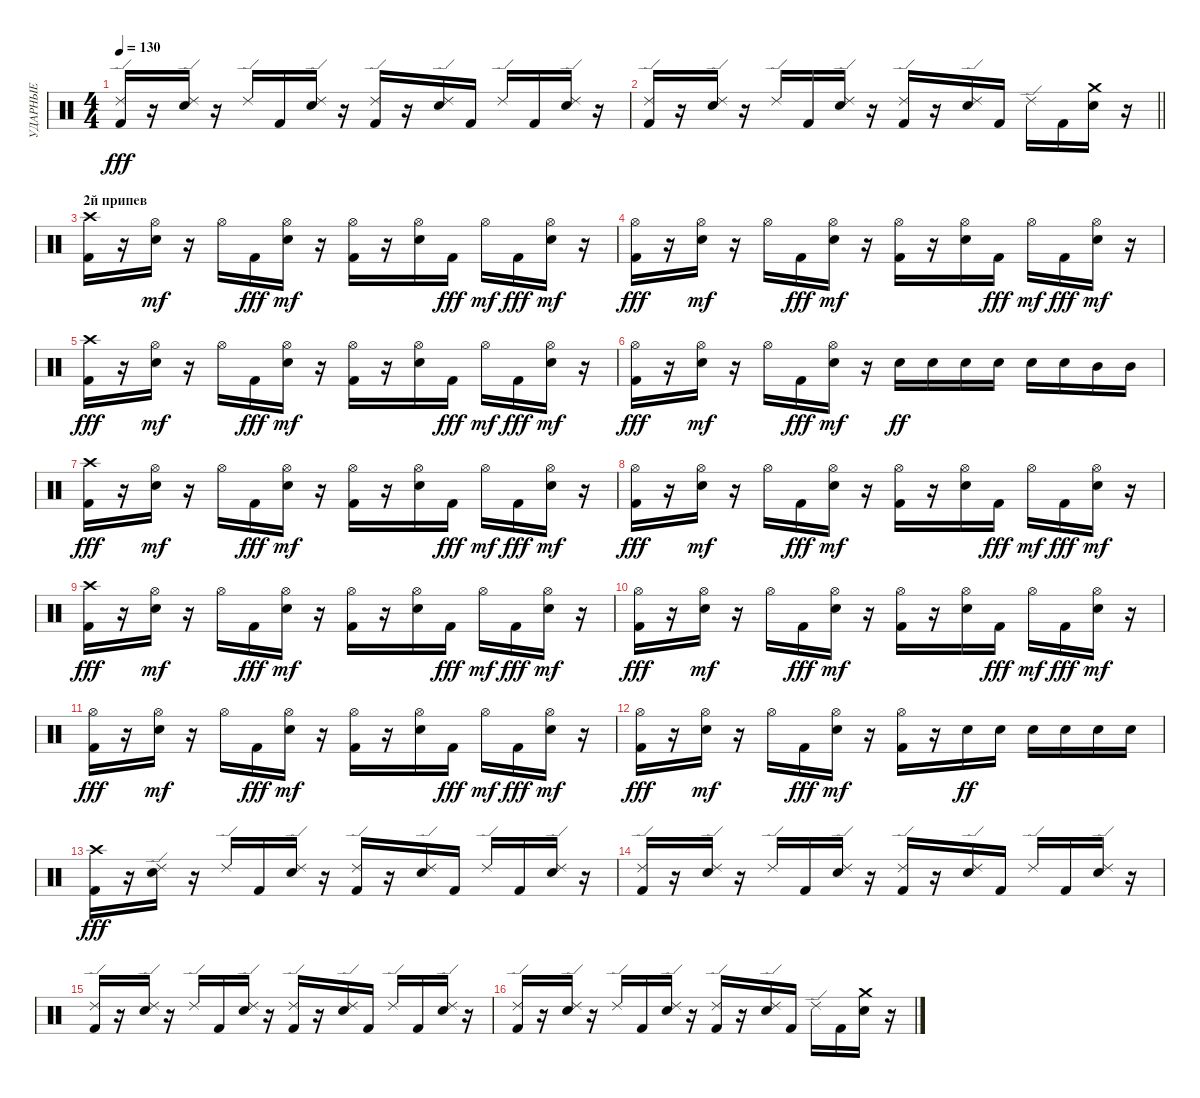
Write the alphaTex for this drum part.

\track ("УДАРНЫЕ" "УДАРНЫЕ") {instrument percussion}
\staff {score}
\articulation defaults
\ts (4 4)
\tempo 130
\clef neutral
\ks c
("Ride (edge) 2" "Kick (hit) 2").16{dy fff} r.16 ("Snare (hit) 2" "Ride (edge) 2").16 r.16 "Ride (edge) 2".16 "Kick (hit) 2".16 ("Snare (hit) 2" "Ride (edge) 2").16 r.16 ("Kick (hit) 2" "Ride (edge) 2").16 r.16 ("Snare (hit) 2" "Ride (edge) 2").16 "Kick (hit) 2".16 "Ride (edge) 2".16 "Kick (hit) 2".16 ("Snare (hit) 2" "Ride (edge) 2").16 r.16 |
\barLineRight lightlight
("Ride (edge) 2" "Kick (hit) 2").16 r.16 ("Snare (hit) 2" "Ride (edge) 2").16 r.16 "Ride (edge) 2".16 "Kick (hit) 2".16 ("Snare (hit) 2" "Ride (edge) 2").16 r.16 ("Kick (hit) 2" "Ride (edge) 2").16 r.16 ("Snare (hit) 2" "Ride (edge) 2").16 "Kick (hit) 2".16 "Ride (edge) 2".16 "Kick (hit) 2".16 ("Snare (hit) 2" "Crash medium (hit)").16 r.16 |
\section ("" "2й припев")
("Crash high (hit)" "Kick (hit) 2").16 r.16 ("Snare (hit) 2" "Hi-Hat (open)").16{dy mf} r.16 "Hi-Hat (open)".16 "Kick (hit) 2".16{dy fff} ("Snare (hit) 2" "Hi-Hat (open)").16{dy mf} r.16 ("Kick (hit) 2" "Hi-Hat (open)").16 r.16 ("Snare (hit) 2" "Hi-Hat (open)").16 "Kick (hit) 2".16{dy fff} "Hi-Hat (open)".16{dy mf} "Kick (hit) 2".16{dy fff} ("Snare (hit) 2" "Hi-Hat (open)").16{dy mf} r.16 |
("Hi-Hat (open)" "Kick (hit) 2").16{dy fff} r.16 ("Snare (hit) 2" "Hi-Hat (open)").16{dy mf} r.16 "Hi-Hat (open)".16 "Kick (hit) 2".16{dy fff} ("Snare (hit) 2" "Hi-Hat (open)").16{dy mf} r.16 ("Kick (hit) 2" "Hi-Hat (open)").16 r.16 ("Snare (hit) 2" "Hi-Hat (open)").16 "Kick (hit) 2".16{dy fff} "Hi-Hat (open)".16{dy mf} "Kick (hit) 2".16{dy fff} ("Snare (hit) 2" "Hi-Hat (open)").16{dy mf} r.16 |
("Crash high (hit)" "Kick (hit) 2").16{dy fff} r.16 ("Snare (hit) 2" "Hi-Hat (open)").16{dy mf} r.16 "Hi-Hat (open)".16 "Kick (hit) 2".16{dy fff} ("Snare (hit) 2" "Hi-Hat (open)").16{dy mf} r.16 ("Kick (hit) 2" "Hi-Hat (open)").16 r.16 ("Snare (hit) 2" "Hi-Hat (open)").16 "Kick (hit) 2".16{dy fff} "Hi-Hat (open)".16{dy mf} "Kick (hit) 2".16{dy fff} ("Snare (hit) 2" "Hi-Hat (open)").16{dy mf} r.16 |
("Hi-Hat (open)" "Kick (hit) 2").16{dy fff} r.16 ("Snare (hit) 2" "Hi-Hat (open)").16{dy mf} r.16 "Hi-Hat (open)".16 "Kick (hit) 2".16{dy fff} ("Snare (hit) 2" "Hi-Hat (open)").16{dy mf} r.16 "Snare (hit) 2".16{dy ff} "Snare (hit) 2".16 "Snare (hit) 2".16 "Snare (hit) 2".16 "Snare (hit) 2".16 "Snare (hit) 2".16 "Mid Tom (hit)".16 "Mid Tom (hit)".16 |
("Crash high (hit)" "Kick (hit) 2").16{dy fff} r.16 ("Snare (hit) 2" "Hi-Hat (open)").16{dy mf} r.16 "Hi-Hat (open)".16 "Kick (hit) 2".16{dy fff} ("Snare (hit) 2" "Hi-Hat (open)").16{dy mf} r.16 ("Kick (hit) 2" "Hi-Hat (open)").16 r.16 ("Snare (hit) 2" "Hi-Hat (open)").16 "Kick (hit) 2".16{dy fff} "Hi-Hat (open)".16{dy mf} "Kick (hit) 2".16{dy fff} ("Snare (hit) 2" "Hi-Hat (open)").16{dy mf} r.16 |
("Hi-Hat (open)" "Kick (hit) 2").16{dy fff} r.16 ("Snare (hit) 2" "Hi-Hat (open)").16{dy mf} r.16 "Hi-Hat (open)".16 "Kick (hit) 2".16{dy fff} ("Snare (hit) 2" "Hi-Hat (open)").16{dy mf} r.16 ("Kick (hit) 2" "Hi-Hat (open)").16 r.16 ("Snare (hit) 2" "Hi-Hat (open)").16 "Kick (hit) 2".16{dy fff} "Hi-Hat (open)".16{dy mf} "Kick (hit) 2".16{dy fff} ("Snare (hit) 2" "Hi-Hat (open)").16{dy mf} r.16 |
("Crash high (hit)" "Kick (hit) 2").16{dy fff} r.16 ("Snare (hit) 2" "Hi-Hat (open)").16{dy mf} r.16 "Hi-Hat (open)".16 "Kick (hit) 2".16{dy fff} ("Snare (hit) 2" "Hi-Hat (open)").16{dy mf} r.16 ("Kick (hit) 2" "Hi-Hat (open)").16 r.16 ("Snare (hit) 2" "Hi-Hat (open)").16 "Kick (hit) 2".16{dy fff} "Hi-Hat (open)".16{dy mf} "Kick (hit) 2".16{dy fff} ("Snare (hit) 2" "Hi-Hat (open)").16{dy mf} r.16 |
("Hi-Hat (open)" "Kick (hit) 2").16{dy fff} r.16 ("Snare (hit) 2" "Hi-Hat (open)").16{dy mf} r.16 "Hi-Hat (open)".16 "Kick (hit) 2".16{dy fff} ("Snare (hit) 2" "Hi-Hat (open)").16{dy mf} r.16 ("Kick (hit) 2" "Hi-Hat (open)").16 r.16 ("Snare (hit) 2" "Hi-Hat (open)").16 "Kick (hit) 2".16{dy fff} "Hi-Hat (open)".16{dy mf} "Kick (hit) 2".16{dy fff} ("Snare (hit) 2" "Hi-Hat (open)").16{dy mf} r.16 |
("Hi-Hat (open)" "Kick (hit) 2").16{dy fff} r.16 ("Snare (hit) 2" "Hi-Hat (open)").16{dy mf} r.16 "Hi-Hat (open)".16 "Kick (hit) 2".16{dy fff} ("Snare (hit) 2" "Hi-Hat (open)").16{dy mf} r.16 ("Kick (hit) 2" "Hi-Hat (open)").16 r.16 ("Snare (hit) 2" "Hi-Hat (open)").16 "Kick (hit) 2".16{dy fff} "Hi-Hat (open)".16{dy mf} "Kick (hit) 2".16{dy fff} ("Snare (hit) 2" "Hi-Hat (open)").16{dy mf} r.16 |
("Hi-Hat (open)" "Kick (hit) 2").16{dy fff} r.16 ("Snare (hit) 2" "Hi-Hat (open)").16{dy mf} r.16 "Hi-Hat (open)".16 "Kick (hit) 2".16{dy fff} ("Snare (hit) 2" "Hi-Hat (open)").16{dy mf} r.16 ("Kick (hit) 2" "Hi-Hat (open)").16 r.16 "Snare (hit) 2".16{dy ff} "Snare (hit) 2".16 "Snare (hit) 2".16 "Snare (hit) 2".16 "Snare (hit) 2".16 "Snare (hit) 2".16 |
("Crash high (hit)" "Kick (hit) 2").16{dy fff} r.16 ("Snare (hit) 2" "Ride (edge) 2").16 r.16 "Ride (edge) 2".16 "Kick (hit) 2".16 ("Snare (hit) 2" "Ride (edge) 2").16 r.16 ("Kick (hit) 2" "Ride (edge) 2").16 r.16 ("Snare (hit) 2" "Ride (edge) 2").16 "Kick (hit) 2".16 "Ride (edge) 2".16 "Kick (hit) 2".16 ("Snare (hit) 2" "Ride (edge) 2").16 r.16 |
("Ride (edge) 2" "Kick (hit) 2").16 r.16 ("Snare (hit) 2" "Ride (edge) 2").16 r.16 "Ride (edge) 2".16 "Kick (hit) 2".16 ("Snare (hit) 2" "Ride (edge) 2").16 r.16 ("Kick (hit) 2" "Ride (edge) 2").16 r.16 ("Snare (hit) 2" "Ride (edge) 2").16 "Kick (hit) 2".16 "Ride (edge) 2".16 "Kick (hit) 2".16 ("Snare (hit) 2" "Ride (edge) 2").16 r.16 |
("Ride (edge) 2" "Kick (hit) 2").16 r.16 ("Snare (hit) 2" "Ride (edge) 2").16 r.16 "Ride (edge) 2".16 "Kick (hit) 2".16 ("Snare (hit) 2" "Ride (edge) 2").16 r.16 ("Kick (hit) 2" "Ride (edge) 2").16 r.16 ("Snare (hit) 2" "Ride (edge) 2").16 "Kick (hit) 2".16 "Ride (edge) 2".16 "Kick (hit) 2".16 ("Snare (hit) 2" "Ride (edge) 2").16 r.16 |
("Ride (edge) 2" "Kick (hit) 2").16 r.16 ("Snare (hit) 2" "Ride (edge) 2").16 r.16 "Ride (edge) 2".16 "Kick (hit) 2".16 ("Snare (hit) 2" "Ride (edge) 2").16 r.16 ("Kick (hit) 2" "Ride (edge) 2").16 r.16 ("Snare (hit) 2" "Ride (edge) 2").16 "Kick (hit) 2".16 "Ride (edge) 2".16 "Kick (hit) 2".16 ("Snare (hit) 2" "Crash medium (hit)").16 r.16
